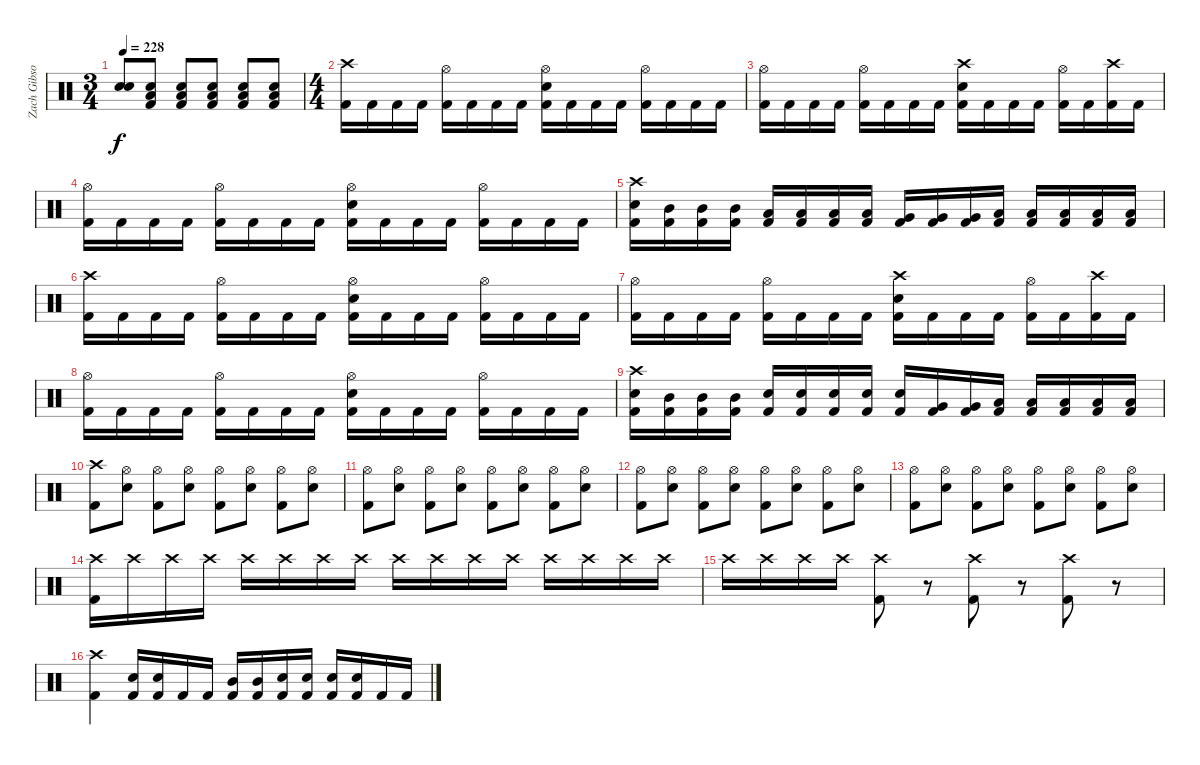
\track ("Zach Gibson (Ex-Drums)" "Zach Gibso") {instrument percussion}
\staff {score}
\articulation defaults
\ts (3 4)
\tempo 228
\clef neutral
\ks c
("Snare (hit)"{t} "Snare (hit)"{t}).8{dy f} ("Low Floor Tom (hit)" "Snare (hit) 2" "Kick (hit) 2").8 ("Low Floor Tom (hit)" "Snare (hit) 2" "Kick (hit) 2").8 ("Low Floor Tom (hit)" "Snare (hit) 2" "Kick (hit) 2").8 ("Low Floor Tom (hit)" "Snare (hit) 2" "Kick (hit) 2").8 ("Low Floor Tom (hit)" "Snare (hit) 2" "Kick (hit) 2").8 |
\ts (4 4)
("Crash high (hit)" "Kick (hit) 2").16 "Kick (hit) 2".16 "Kick (hit) 2".16 "Kick (hit) 2".16 ("Hi-Hat (open)" "Kick (hit) 2").16 "Kick (hit) 2".16 "Kick (hit) 2".16 "Kick (hit) 2".16 ("Hi-Hat (open)" "Snare (hit) 2" "Kick (hit) 2").16 "Kick (hit) 2".16 "Kick (hit) 2".16 "Kick (hit) 2".16 ("Hi-Hat (open)" "Kick (hit) 2").16 "Kick (hit) 2".16 "Kick (hit) 2".16 "Kick (hit) 2".16 |
("Hi-Hat (open)" "Kick (hit) 2").16 "Kick (hit) 2".16 "Kick (hit) 2".16 "Kick (hit) 2".16 ("Hi-Hat (open)" "Kick (hit) 2").16 "Kick (hit) 2".16 "Kick (hit) 2".16 "Kick (hit) 2".16 ("Crash high (hit)" "Snare (hit) 2" "Kick (hit) 2").16 "Kick (hit) 2".16 "Kick (hit) 2".16 "Kick (hit) 2".16 ("Hi-Hat (open)" "Kick (hit) 2").16 "Kick (hit) 2".16 ("Crash high (hit)" "Kick (hit) 2").16 "Kick (hit) 2".16 |
("Hi-Hat (open)" "Kick (hit) 2").16 "Kick (hit) 2".16 "Kick (hit) 2".16 "Kick (hit) 2".16 ("Hi-Hat (open)" "Kick (hit) 2").16 "Kick (hit) 2".16 "Kick (hit) 2".16 "Kick (hit) 2".16 ("Hi-Hat (open)" "Snare (hit) 2" "Kick (hit) 2").16 "Kick (hit) 2".16 "Kick (hit) 2".16 "Kick (hit) 2".16 ("Hi-Hat (open)" "Kick (hit) 2").16 "Kick (hit) 2".16 "Kick (hit) 2".16 "Kick (hit) 2".16 |
("Crash high (hit)" "Snare (hit) 2" "Kick (hit) 2").16 ("Mid Tom (hit)" "Kick (hit) 2").16 ("Mid Tom (hit)" "Kick (hit) 2").16 ("Mid Tom (hit)" "Kick (hit) 2").16 ("Low Tom (hit)" "Kick (hit) 2").16 ("Low Tom (hit)" "Kick (hit) 2").16 ("Low Tom (hit)" "Kick (hit) 2").16 ("Low Tom (hit)" "Kick (hit) 2").16 ("Very Low Tom (hit)" "Kick (hit) 2").16 ("Very Low Tom (hit)" "Kick (hit) 2").16 ("Very Low Tom (hit)" "Kick (hit) 2").16 ("Low Floor Tom (hit)" "Kick (hit) 2").16 ("Low Floor Tom (hit)" "Kick (hit) 2").16 ("Low Floor Tom (hit)" "Kick (hit) 2").16 ("Low Floor Tom (hit)" "Kick (hit) 2").16 ("Low Floor Tom (hit)" "Kick (hit) 2").16 |
("Crash high (hit)" "Kick (hit) 2").16 "Kick (hit) 2".16 "Kick (hit) 2".16 "Kick (hit) 2".16 ("Hi-Hat (open)" "Kick (hit) 2").16 "Kick (hit) 2".16 "Kick (hit) 2".16 "Kick (hit) 2".16 ("Hi-Hat (open)" "Snare (hit) 2" "Kick (hit) 2").16 "Kick (hit) 2".16 "Kick (hit) 2".16 "Kick (hit) 2".16 ("Hi-Hat (open)" "Kick (hit) 2").16 "Kick (hit) 2".16 "Kick (hit) 2".16 "Kick (hit) 2".16 |
("Hi-Hat (open)" "Kick (hit) 2").16 "Kick (hit) 2".16 "Kick (hit) 2".16 "Kick (hit) 2".16 ("Hi-Hat (open)" "Kick (hit) 2").16 "Kick (hit) 2".16 "Kick (hit) 2".16 "Kick (hit) 2".16 ("Crash high (hit)" "Snare (hit) 2" "Kick (hit) 2").16 "Kick (hit) 2".16 "Kick (hit) 2".16 "Kick (hit) 2".16 ("Hi-Hat (open)" "Kick (hit) 2").16 "Kick (hit) 2".16 ("Crash high (hit)" "Kick (hit) 2").16 "Kick (hit) 2".16 |
("Hi-Hat (open)" "Kick (hit) 2").16 "Kick (hit) 2".16 "Kick (hit) 2".16 "Kick (hit) 2".16 ("Hi-Hat (open)" "Kick (hit) 2").16 "Kick (hit) 2".16 "Kick (hit) 2".16 "Kick (hit) 2".16 ("Hi-Hat (open)" "Snare (hit) 2" "Kick (hit) 2").16 "Kick (hit) 2".16 "Kick (hit) 2".16 "Kick (hit) 2".16 ("Hi-Hat (open)" "Kick (hit) 2").16 "Kick (hit) 2".16 "Kick (hit) 2".16 "Kick (hit) 2".16 |
("Crash high (hit)" "Snare (hit) 2" "Kick (hit) 2").16 ("Mid Tom (hit)" "Kick (hit) 2").16 ("Mid Tom (hit)" "Kick (hit) 2").16 ("Mid Tom (hit)" "Kick (hit) 2").16 ("Snare (hit) 2" "Kick (hit) 2").16 ("Snare (hit) 2" "Kick (hit) 2").16 ("Snare (hit) 2" "Kick (hit) 2").16 ("Snare (hit) 2" "Kick (hit) 2").16 ("Snare (hit) 2" "Kick (hit) 2").16 ("Very Low Tom (hit)" "Kick (hit) 2").16 ("Very Low Tom (hit)" "Kick (hit) 2").16 ("Low Floor Tom (hit)" "Kick (hit) 2").16 ("Low Floor Tom (hit)" "Kick (hit) 2").16 ("Low Floor Tom (hit)" "Kick (hit) 2").16 ("Low Floor Tom (hit)" "Kick (hit) 2").16 ("Low Floor Tom (hit)" "Kick (hit) 2").16 |
("Crash high (hit)" "Kick (hit) 2").8 ("Hi-Hat (open)" "Snare (hit) 2").8 ("Hi-Hat (open)" "Kick (hit) 2").8 ("Hi-Hat (open)" "Snare (hit) 2").8 ("Hi-Hat (open)" "Kick (hit) 2").8 ("Hi-Hat (open)" "Snare (hit) 2").8 ("Hi-Hat (open)" "Kick (hit) 2").8 ("Hi-Hat (open)" "Snare (hit) 2").8 |
("Hi-Hat (open)" "Kick (hit) 2").8 ("Hi-Hat (open)" "Snare (hit) 2").8 ("Hi-Hat (open)" "Kick (hit) 2").8 ("Hi-Hat (open)" "Snare (hit) 2").8 ("Hi-Hat (open)" "Kick (hit) 2").8 ("Hi-Hat (open)" "Snare (hit) 2").8 ("Hi-Hat (open)" "Kick (hit) 2").8 ("Hi-Hat (open)" "Snare (hit) 2").8 |
("Hi-Hat (open)" "Kick (hit) 2").8 ("Hi-Hat (open)" "Snare (hit) 2").8 ("Hi-Hat (open)" "Kick (hit) 2").8 ("Hi-Hat (open)" "Snare (hit) 2").8 ("Hi-Hat (open)" "Kick (hit) 2").8 ("Hi-Hat (open)" "Snare (hit) 2").8 ("Hi-Hat (open)" "Kick (hit) 2").8 ("Hi-Hat (open)" "Snare (hit) 2").8 |
("Hi-Hat (open)" "Kick (hit) 2").8 ("Hi-Hat (open)" "Snare (hit) 2").8 ("Hi-Hat (open)" "Kick (hit) 2").8 ("Hi-Hat (open)" "Snare (hit) 2").8 ("Hi-Hat (open)" "Kick (hit) 2").8 ("Hi-Hat (open)" "Snare (hit) 2").8 ("Hi-Hat (open)" "Kick (hit) 2").8 ("Hi-Hat (open)" "Snare (hit) 2").8 |
("Crash high (hit)" "Kick (hit) 2").16 "Crash high (hit)".16 "Crash high (hit)".16 "Crash high (hit)".16 "Crash high (hit)".16 "Crash high (hit)".16 "Crash high (hit)".16 "Crash high (hit)".16 "Crash high (hit)".16 "Crash high (hit)".16 "Crash high (hit)".16 "Crash high (hit)".16 "Crash high (hit)".16 "Crash high (hit)".16 "Crash high (hit)".16 "Crash high (hit)".16 |
"Crash high (hit)".16 "Crash high (hit)".16 "Crash high (hit)".16 "Crash high (hit)".16 ("Crash high (hit)" "Kick (hit) 2").8{volume 16} r.8 ("Crash high (hit)" "Kick (hit) 2").8{volume 16} r.8 ("Crash high (hit)" "Kick (hit) 2").8{volume 16} r.8 |
("Crash high (hit)" "Kick (hit) 2").4{volume 16} ("Snare (hit) 2" "Kick (hit) 2").16 ("Snare (hit) 2" "Kick (hit) 2").16 "Kick (hit) 2".16 "Kick (hit) 2".16 ("Mid Tom (hit)" "Kick (hit) 2").16 ("Mid Tom (hit)" "Kick (hit) 2").16 ("Snare (hit) 2" "Kick (hit) 2").16 ("Snare (hit) 2" "Kick (hit) 2").16 ("Snare (hit) 2" "Kick (hit) 2").16 ("Snare (hit) 2" "Kick (hit) 2").16 "Kick (hit) 2".16 "Kick (hit) 2".16
